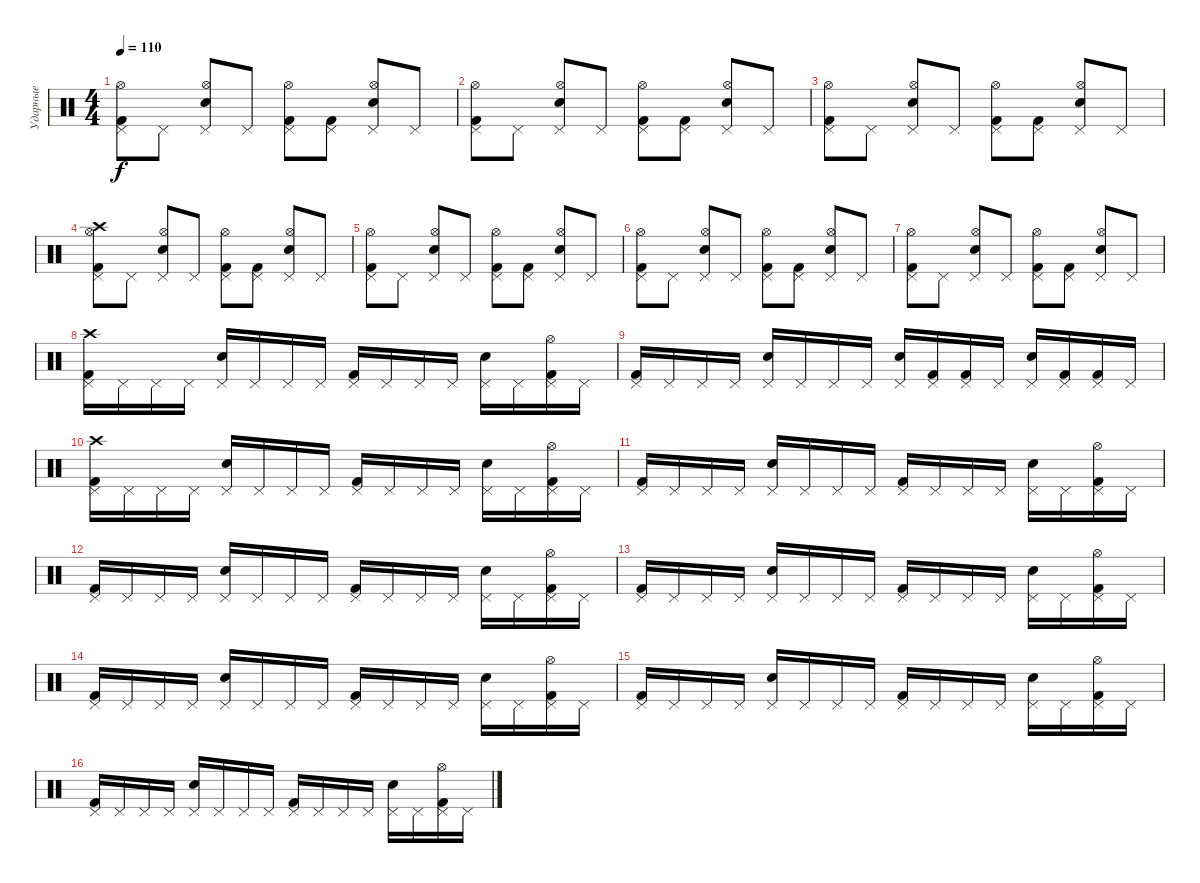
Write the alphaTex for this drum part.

\track ("Ударные" "Ударные") {instrument percussion}
\staff {score}
\articulation defaults
\ts (4 4)
\tempo 110
\clef neutral
\ks c
("Kick (hit) 2" "Pedal Hi-Hat (hit)" "Hi-Hat (open)").8{dy f} "Pedal Hi-Hat (hit)".8 ("Snare (hit) 2" "Pedal Hi-Hat (hit)" "Hi-Hat (open)").8 "Pedal Hi-Hat (hit)".8 ("Kick (hit) 2" "Pedal Hi-Hat (hit)" "Hi-Hat (open)").8 ("Kick (hit) 2" "Pedal Hi-Hat (hit)").8 ("Snare (hit) 2" "Pedal Hi-Hat (hit)" "Hi-Hat (open)").8 "Pedal Hi-Hat (hit)".8 |
("Kick (hit) 2" "Pedal Hi-Hat (hit)" "Hi-Hat (open)").8 "Pedal Hi-Hat (hit)".8 ("Snare (hit) 2" "Pedal Hi-Hat (hit)" "Hi-Hat (open)").8 "Pedal Hi-Hat (hit)".8 ("Kick (hit) 2" "Pedal Hi-Hat (hit)" "Hi-Hat (open)").8 ("Kick (hit) 2" "Pedal Hi-Hat (hit)").8 ("Snare (hit) 2" "Pedal Hi-Hat (hit)" "Hi-Hat (open)").8 "Pedal Hi-Hat (hit)".8 |
("Kick (hit) 2" "Pedal Hi-Hat (hit)" "Hi-Hat (open)").8 "Pedal Hi-Hat (hit)".8 ("Snare (hit) 2" "Pedal Hi-Hat (hit)" "Hi-Hat (open)").8 "Pedal Hi-Hat (hit)".8 ("Kick (hit) 2" "Pedal Hi-Hat (hit)" "Hi-Hat (open)").8 ("Kick (hit) 2" "Pedal Hi-Hat (hit)").8 ("Snare (hit) 2" "Pedal Hi-Hat (hit)" "Hi-Hat (open)").8 "Pedal Hi-Hat (hit)".8 |
("Kick (hit) 2" "Crash high (hit)" "Pedal Hi-Hat (hit)" "Hi-Hat (open)").8 "Pedal Hi-Hat (hit)".8 ("Snare (hit) 2" "Pedal Hi-Hat (hit)" "Hi-Hat (open)").8 "Pedal Hi-Hat (hit)".8 ("Kick (hit) 2" "Pedal Hi-Hat (hit)" "Hi-Hat (open)").8 ("Kick (hit) 2" "Pedal Hi-Hat (hit)").8 ("Snare (hit) 2" "Pedal Hi-Hat (hit)" "Hi-Hat (open)").8 "Pedal Hi-Hat (hit)".8 |
("Kick (hit) 2" "Pedal Hi-Hat (hit)" "Hi-Hat (open)").8 "Pedal Hi-Hat (hit)".8 ("Snare (hit) 2" "Pedal Hi-Hat (hit)" "Hi-Hat (open)").8 "Pedal Hi-Hat (hit)".8 ("Kick (hit) 2" "Pedal Hi-Hat (hit)" "Hi-Hat (open)").8 ("Kick (hit) 2" "Pedal Hi-Hat (hit)").8 ("Snare (hit) 2" "Pedal Hi-Hat (hit)" "Hi-Hat (open)").8 "Pedal Hi-Hat (hit)".8 |
("Kick (hit) 2" "Pedal Hi-Hat (hit)" "Hi-Hat (open)").8 "Pedal Hi-Hat (hit)".8 ("Snare (hit) 2" "Pedal Hi-Hat (hit)" "Hi-Hat (open)").8 "Pedal Hi-Hat (hit)".8 ("Kick (hit) 2" "Pedal Hi-Hat (hit)" "Hi-Hat (open)").8 ("Kick (hit) 2" "Pedal Hi-Hat (hit)").8 ("Snare (hit) 2" "Pedal Hi-Hat (hit)" "Hi-Hat (open)").8 "Pedal Hi-Hat (hit)".8 |
("Kick (hit) 2" "Pedal Hi-Hat (hit)" "Hi-Hat (open)").8 "Pedal Hi-Hat (hit)".8 ("Snare (hit) 2" "Pedal Hi-Hat (hit)" "Hi-Hat (open)").8 "Pedal Hi-Hat (hit)".8 ("Kick (hit) 2" "Pedal Hi-Hat (hit)" "Hi-Hat (open)").8 ("Kick (hit) 2" "Pedal Hi-Hat (hit)").8 ("Snare (hit) 2" "Pedal Hi-Hat (hit)" "Hi-Hat (open)").8 "Pedal Hi-Hat (hit)".8 |
("Kick (hit) 2" "Crash high (hit)" "Pedal Hi-Hat (hit)").16 "Pedal Hi-Hat (hit)".16 "Pedal Hi-Hat (hit)".16 "Pedal Hi-Hat (hit)".16 ("Snare (hit) 2" "Pedal Hi-Hat (hit)").16 "Pedal Hi-Hat (hit)".16 "Pedal Hi-Hat (hit)".16 "Pedal Hi-Hat (hit)".16 ("Kick (hit) 2" "Pedal Hi-Hat (hit)").16 "Pedal Hi-Hat (hit)".16 "Pedal Hi-Hat (hit)".16 "Pedal Hi-Hat (hit)".16 ("Snare (hit) 2" "Pedal Hi-Hat (hit)").16 "Pedal Hi-Hat (hit)".16 ("Kick (hit) 2" "Pedal Hi-Hat (hit)" "Hi-Hat (open)").16 "Pedal Hi-Hat (hit)".16 |
("Kick (hit) 2" "Pedal Hi-Hat (hit)").16 "Pedal Hi-Hat (hit)".16 "Pedal Hi-Hat (hit)".16 "Pedal Hi-Hat (hit)".16 ("Snare (hit) 2" "Pedal Hi-Hat (hit)").16 "Pedal Hi-Hat (hit)".16 "Pedal Hi-Hat (hit)".16 "Pedal Hi-Hat (hit)".16 ("Snare (hit) 2" "Pedal Hi-Hat (hit)").16 ("Kick (hit) 2" "Pedal Hi-Hat (hit)").16 ("Kick (hit) 2" "Pedal Hi-Hat (hit)").16 "Pedal Hi-Hat (hit)".16 ("Snare (hit) 2" "Pedal Hi-Hat (hit)").16 ("Kick (hit) 2" "Pedal Hi-Hat (hit)").16 ("Kick (hit) 2" "Pedal Hi-Hat (hit)").16 "Pedal Hi-Hat (hit)".16 |
("Kick (hit) 2" "Crash high (hit)" "Pedal Hi-Hat (hit)").16 "Pedal Hi-Hat (hit)".16 "Pedal Hi-Hat (hit)".16 "Pedal Hi-Hat (hit)".16 ("Snare (hit) 2" "Pedal Hi-Hat (hit)").16 "Pedal Hi-Hat (hit)".16 "Pedal Hi-Hat (hit)".16 "Pedal Hi-Hat (hit)".16 ("Kick (hit) 2" "Pedal Hi-Hat (hit)").16 "Pedal Hi-Hat (hit)".16 "Pedal Hi-Hat (hit)".16 "Pedal Hi-Hat (hit)".16 ("Snare (hit) 2" "Pedal Hi-Hat (hit)").16 "Pedal Hi-Hat (hit)".16 ("Kick (hit) 2" "Pedal Hi-Hat (hit)" "Hi-Hat (open)").16 "Pedal Hi-Hat (hit)".16 |
("Kick (hit) 2" "Pedal Hi-Hat (hit)").16 "Pedal Hi-Hat (hit)".16 "Pedal Hi-Hat (hit)".16 "Pedal Hi-Hat (hit)".16 ("Snare (hit) 2" "Pedal Hi-Hat (hit)").16 "Pedal Hi-Hat (hit)".16 "Pedal Hi-Hat (hit)".16 "Pedal Hi-Hat (hit)".16 ("Kick (hit) 2" "Pedal Hi-Hat (hit)").16 "Pedal Hi-Hat (hit)".16 "Pedal Hi-Hat (hit)".16 "Pedal Hi-Hat (hit)".16 ("Snare (hit) 2" "Pedal Hi-Hat (hit)").16 "Pedal Hi-Hat (hit)".16 ("Kick (hit) 2" "Pedal Hi-Hat (hit)" "Hi-Hat (open)").16 "Pedal Hi-Hat (hit)".16 |
("Kick (hit) 2" "Pedal Hi-Hat (hit)").16 "Pedal Hi-Hat (hit)".16 "Pedal Hi-Hat (hit)".16 "Pedal Hi-Hat (hit)".16 ("Snare (hit) 2" "Pedal Hi-Hat (hit)").16 "Pedal Hi-Hat (hit)".16 "Pedal Hi-Hat (hit)".16 "Pedal Hi-Hat (hit)".16 ("Kick (hit) 2" "Pedal Hi-Hat (hit)").16 "Pedal Hi-Hat (hit)".16 "Pedal Hi-Hat (hit)".16 "Pedal Hi-Hat (hit)".16 ("Snare (hit) 2" "Pedal Hi-Hat (hit)").16 "Pedal Hi-Hat (hit)".16 ("Kick (hit) 2" "Pedal Hi-Hat (hit)" "Hi-Hat (open)").16 "Pedal Hi-Hat (hit)".16 |
("Kick (hit) 2" "Pedal Hi-Hat (hit)").16 "Pedal Hi-Hat (hit)".16 "Pedal Hi-Hat (hit)".16 "Pedal Hi-Hat (hit)".16 ("Snare (hit) 2" "Pedal Hi-Hat (hit)").16 "Pedal Hi-Hat (hit)".16 "Pedal Hi-Hat (hit)".16 "Pedal Hi-Hat (hit)".16 ("Kick (hit) 2" "Pedal Hi-Hat (hit)").16 "Pedal Hi-Hat (hit)".16 "Pedal Hi-Hat (hit)".16 "Pedal Hi-Hat (hit)".16 ("Snare (hit) 2" "Pedal Hi-Hat (hit)").16 "Pedal Hi-Hat (hit)".16 ("Kick (hit) 2" "Pedal Hi-Hat (hit)" "Hi-Hat (open)").16 "Pedal Hi-Hat (hit)".16 |
("Kick (hit) 2" "Pedal Hi-Hat (hit)").16 "Pedal Hi-Hat (hit)".16 "Pedal Hi-Hat (hit)".16 "Pedal Hi-Hat (hit)".16 ("Snare (hit) 2" "Pedal Hi-Hat (hit)").16 "Pedal Hi-Hat (hit)".16 "Pedal Hi-Hat (hit)".16 "Pedal Hi-Hat (hit)".16 ("Kick (hit) 2" "Pedal Hi-Hat (hit)").16 "Pedal Hi-Hat (hit)".16 "Pedal Hi-Hat (hit)".16 "Pedal Hi-Hat (hit)".16 ("Snare (hit) 2" "Pedal Hi-Hat (hit)").16 "Pedal Hi-Hat (hit)".16 ("Kick (hit) 2" "Pedal Hi-Hat (hit)" "Hi-Hat (open)").16 "Pedal Hi-Hat (hit)".16 |
("Kick (hit) 2" "Pedal Hi-Hat (hit)").16 "Pedal Hi-Hat (hit)".16 "Pedal Hi-Hat (hit)".16 "Pedal Hi-Hat (hit)".16 ("Snare (hit) 2" "Pedal Hi-Hat (hit)").16 "Pedal Hi-Hat (hit)".16 "Pedal Hi-Hat (hit)".16 "Pedal Hi-Hat (hit)".16 ("Kick (hit) 2" "Pedal Hi-Hat (hit)").16 "Pedal Hi-Hat (hit)".16 "Pedal Hi-Hat (hit)".16 "Pedal Hi-Hat (hit)".16 ("Snare (hit) 2" "Pedal Hi-Hat (hit)").16 "Pedal Hi-Hat (hit)".16 ("Kick (hit) 2" "Pedal Hi-Hat (hit)" "Hi-Hat (open)").16 "Pedal Hi-Hat (hit)".16 |
("Kick (hit) 2" "Pedal Hi-Hat (hit)").16 "Pedal Hi-Hat (hit)".16 "Pedal Hi-Hat (hit)".16 "Pedal Hi-Hat (hit)".16 ("Snare (hit) 2" "Pedal Hi-Hat (hit)").16 "Pedal Hi-Hat (hit)".16 "Pedal Hi-Hat (hit)".16 "Pedal Hi-Hat (hit)".16 ("Kick (hit) 2" "Pedal Hi-Hat (hit)").16 "Pedal Hi-Hat (hit)".16 "Pedal Hi-Hat (hit)".16 "Pedal Hi-Hat (hit)".16 ("Snare (hit) 2" "Pedal Hi-Hat (hit)").16 "Pedal Hi-Hat (hit)".16 ("Kick (hit) 2" "Pedal Hi-Hat (hit)" "Hi-Hat (open)").16 "Pedal Hi-Hat (hit)".16
